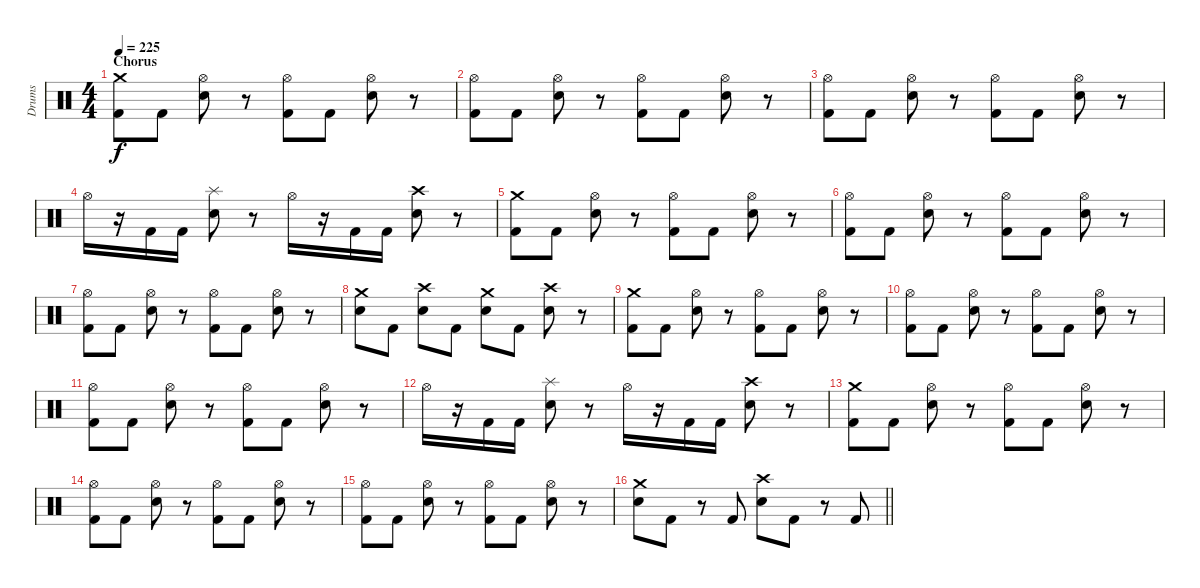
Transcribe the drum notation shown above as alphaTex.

\track ("Drums" "Drums") {instrument percussion}
\staff {score}
\articulation defaults
\ts (4 4)
\section ("" "Chorus")
\tempo 225
\clef neutral
\ks c
("Crash medium (hit)" "Kick (hit) 2").8{dy f} "Kick (hit) 2".8 ("Hi-Hat (open)" "Electric Snare (hit)").8 r.8 ("Hi-Hat (open)" "Kick (hit) 2").8 "Kick (hit) 2".8 ("Hi-Hat (open)" "Electric Snare (hit)").8 r.8 |
("Hi-Hat (open)" "Kick (hit) 2").8 "Kick (hit) 2".8 ("Hi-Hat (open)" "Electric Snare (hit)").8 r.8 ("Hi-Hat (open)" "Kick (hit) 2").8 "Kick (hit) 2".8 ("Hi-Hat (open)" "Electric Snare (hit)").8 r.8 |
("Hi-Hat (open)" "Kick (hit) 2").8 "Kick (hit) 2".8 ("Hi-Hat (open)" "Electric Snare (hit)").8 r.8 ("Hi-Hat (open)" "Kick (hit) 2").8 "Kick (hit) 2".8 ("Hi-Hat (open)" "Electric Snare (hit)").8 r.8 |
"Hi-Hat (open)".16 r.16 "Kick (hit) 2".16 "Kick (hit) 2".16 ("Splash (hit)" "Electric Snare (hit)").8 r.8 "Hi-Hat (open)".16 r.16 "Kick (hit) 2".16 "Kick (hit) 2".16 ("Crash high (hit)" "Electric Snare (hit)").8 r.8 |
("Crash medium (hit)" "Kick (hit) 2").8 "Kick (hit) 2".8 ("Hi-Hat (open)" "Electric Snare (hit)").8 r.8 ("Hi-Hat (open)" "Kick (hit) 2").8 "Kick (hit) 2".8 ("Hi-Hat (open)" "Electric Snare (hit)").8 r.8 |
("Hi-Hat (open)" "Kick (hit) 2").8 "Kick (hit) 2".8 ("Hi-Hat (open)" "Electric Snare (hit)").8 r.8 ("Hi-Hat (open)" "Kick (hit) 2").8 "Kick (hit) 2".8 ("Hi-Hat (open)" "Electric Snare (hit)").8 r.8 |
("Hi-Hat (open)" "Kick (hit) 2").8 "Kick (hit) 2".8 ("Hi-Hat (open)" "Electric Snare (hit)").8 r.8 ("Hi-Hat (open)" "Kick (hit) 2").8 "Kick (hit) 2".8 ("Hi-Hat (open)" "Electric Snare (hit)").8 r.8 |
("Crash medium (hit)" "Electric Snare (hit)").8 "Kick (hit) 2".8 ("Crash high (hit)" "Electric Snare (hit)").8 "Kick (hit) 2".8 ("Crash medium (hit)" "Electric Snare (hit)").8 "Kick (hit) 2".8 ("Crash high (hit)" "Electric Snare (hit)").8 r.8 |
("Crash medium (hit)" "Kick (hit) 2").8 "Kick (hit) 2".8 ("Hi-Hat (open)" "Electric Snare (hit)").8 r.8 ("Hi-Hat (open)" "Kick (hit) 2").8 "Kick (hit) 2".8 ("Hi-Hat (open)" "Electric Snare (hit)").8 r.8 |
("Hi-Hat (open)" "Kick (hit) 2").8 "Kick (hit) 2".8 ("Hi-Hat (open)" "Electric Snare (hit)").8 r.8 ("Hi-Hat (open)" "Kick (hit) 2").8 "Kick (hit) 2".8 ("Hi-Hat (open)" "Electric Snare (hit)").8 r.8 |
("Hi-Hat (open)" "Kick (hit) 2").8 "Kick (hit) 2".8 ("Hi-Hat (open)" "Electric Snare (hit)").8 r.8 ("Hi-Hat (open)" "Kick (hit) 2").8 "Kick (hit) 2".8 ("Hi-Hat (open)" "Electric Snare (hit)").8 r.8 |
"Hi-Hat (open)".16 r.16 "Kick (hit) 2".16 "Kick (hit) 2".16 ("Splash (hit)" "Electric Snare (hit)").8 r.8 "Hi-Hat (open)".16 r.16 "Kick (hit) 2".16 "Kick (hit) 2".16 ("Crash high (hit)" "Electric Snare (hit)").8 r.8 |
("Crash medium (hit)" "Kick (hit) 2").8 "Kick (hit) 2".8 ("Hi-Hat (open)" "Electric Snare (hit)").8 r.8 ("Hi-Hat (open)" "Kick (hit) 2").8 "Kick (hit) 2".8 ("Hi-Hat (open)" "Electric Snare (hit)").8 r.8 |
("Hi-Hat (open)" "Kick (hit) 2").8 "Kick (hit) 2".8 ("Hi-Hat (open)" "Electric Snare (hit)").8 r.8 ("Hi-Hat (open)" "Kick (hit) 2").8 "Kick (hit) 2".8 ("Hi-Hat (open)" "Electric Snare (hit)").8 r.8 |
("Hi-Hat (open)" "Kick (hit) 2").8 "Kick (hit) 2".8 ("Hi-Hat (open)" "Electric Snare (hit)").8 r.8 ("Hi-Hat (open)" "Kick (hit) 2").8 "Kick (hit) 2".8 ("Hi-Hat (open)" "Electric Snare (hit)").8 r.8 |
\barLineRight lightlight
("Crash medium (hit)" "Electric Snare (hit)").8 "Kick (hit) 2".8 r.8 "Kick (hit) 2".8 ("Crash high (hit)" "Electric Snare (hit)").8 "Kick (hit) 2".8 r.8 "Kick (hit) 2".8
